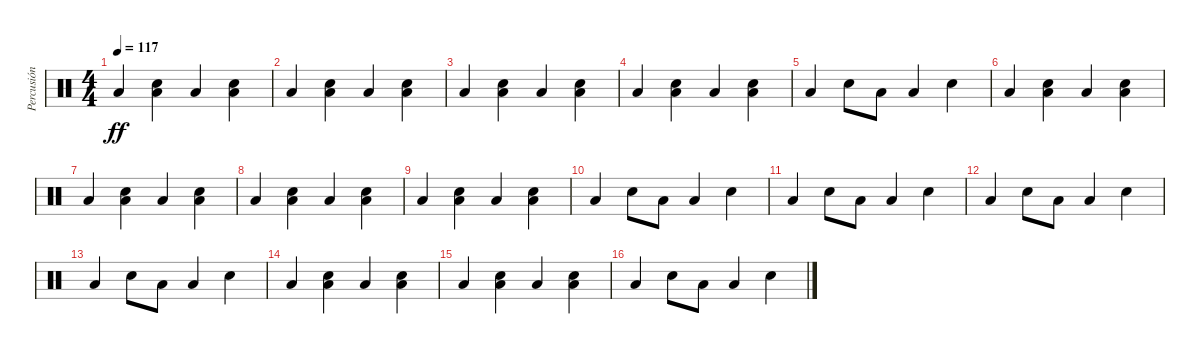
\track ("Percusión" "Percusión") {instrument percussion}
\staff {score}
\articulation defaults
\ts (4 4)
\tempo 117
\clef neutral
\ks c "Low Floor Tom (hit)".4{dy ff}
("Snare (hit) 2" "Low Floor Tom (hit)").4 "Low Floor Tom (hit)".4 ("Snare (hit) 2" "Low Floor Tom (hit)").4 |
"Low Floor Tom (hit)".4 ("Snare (hit) 2" "Low Floor Tom (hit)").4 "Low Floor Tom (hit)".4 ("Snare (hit) 2" "Low Floor Tom (hit)").4 |
"Low Floor Tom (hit)".4 ("Snare (hit) 2" "Low Floor Tom (hit)").4 "Low Floor Tom (hit)".4 ("Snare (hit) 2" "Low Floor Tom (hit)").4 |
"Low Floor Tom (hit)".4 ("Snare (hit) 2" "Low Floor Tom (hit)").4 "Low Floor Tom (hit)".4 ("Snare (hit) 2" "Low Floor Tom (hit)").4 |
"Low Floor Tom (hit)".4 "Snare (hit) 2".8 "Low Floor Tom (hit)".8 "Low Floor Tom (hit)".4 "Snare (hit) 2".4 |
"Low Floor Tom (hit)".4 ("Snare (hit) 2" "Low Floor Tom (hit)").4 "Low Floor Tom (hit)".4 ("Snare (hit) 2" "Low Floor Tom (hit)").4 |
"Low Floor Tom (hit)".4 ("Snare (hit) 2" "Low Floor Tom (hit)").4 "Low Floor Tom (hit)".4 ("Snare (hit) 2" "Low Floor Tom (hit)").4 |
"Low Floor Tom (hit)".4 ("Snare (hit) 2" "Low Floor Tom (hit)").4 "Low Floor Tom (hit)".4 ("Snare (hit) 2" "Low Floor Tom (hit)").4 |
"Low Floor Tom (hit)".4 ("Snare (hit) 2" "Low Floor Tom (hit)").4 "Low Floor Tom (hit)".4 ("Snare (hit) 2" "Low Floor Tom (hit)").4 |
"Low Floor Tom (hit)".4 "Snare (hit) 2".8 "Low Floor Tom (hit)".8 "Low Floor Tom (hit)".4 "Snare (hit) 2".4 |
"Low Floor Tom (hit)".4 "Snare (hit) 2".8 "Low Floor Tom (hit)".8 "Low Floor Tom (hit)".4 "Snare (hit) 2".4 |
"Low Floor Tom (hit)".4 "Snare (hit) 2".8 "Low Floor Tom (hit)".8 "Low Floor Tom (hit)".4 "Snare (hit) 2".4 |
"Low Floor Tom (hit)".4 "Snare (hit) 2".8 "Low Floor Tom (hit)".8 "Low Floor Tom (hit)".4 "Snare (hit) 2".4 |
"Low Floor Tom (hit)".4 ("Snare (hit) 2" "Low Floor Tom (hit)").4 "Low Floor Tom (hit)".4 ("Snare (hit) 2" "Low Floor Tom (hit)").4 |
"Low Floor Tom (hit)".4 ("Snare (hit) 2" "Low Floor Tom (hit)").4 "Low Floor Tom (hit)".4 ("Snare (hit) 2" "Low Floor Tom (hit)").4 |
"Low Floor Tom (hit)".4 "Snare (hit) 2".8 "Low Floor Tom (hit)".8 "Low Floor Tom (hit)".4 "Snare (hit) 2".4
